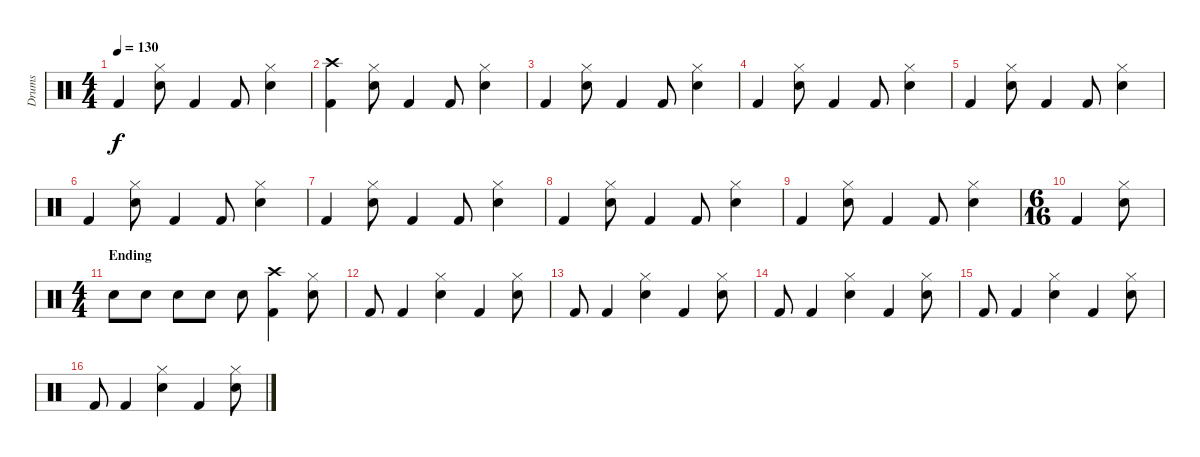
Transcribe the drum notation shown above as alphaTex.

\track ("Drums" "Drums") {instrument percussion}
\staff {score}
\articulation defaults
\ts (4 4)
\tempo 130
\clef neutral
\ks c "Kick (hit) 2".4{dy f}
("Hi-Hat (closed)" "Snare (hit) 2").8 "Kick (hit) 2".4 "Kick (hit) 2".8 ("Hi-Hat (closed)" "Snare (hit) 2").4 |
("Crash high (hit)" "Kick (hit) 2").4 ("Hi-Hat (closed)" "Snare (hit) 2").8 "Kick (hit) 2".4 "Kick (hit) 2".8 ("Hi-Hat (closed)" "Snare (hit) 2").4 |
"Kick (hit) 2".4 ("Hi-Hat (closed)" "Snare (hit) 2").8 "Kick (hit) 2".4 "Kick (hit) 2".8 ("Hi-Hat (closed)" "Snare (hit) 2").4 |
"Kick (hit) 2".4 ("Hi-Hat (closed)" "Snare (hit) 2").8 "Kick (hit) 2".4 "Kick (hit) 2".8 ("Hi-Hat (closed)" "Snare (hit) 2").4 |
"Kick (hit) 2".4 ("Hi-Hat (closed)" "Snare (hit) 2").8 "Kick (hit) 2".4 "Kick (hit) 2".8 ("Hi-Hat (closed)" "Snare (hit) 2").4 |
"Kick (hit) 2".4 ("Hi-Hat (closed)" "Snare (hit) 2").8 "Kick (hit) 2".4 "Kick (hit) 2".8 ("Hi-Hat (closed)" "Snare (hit) 2").4 |
"Kick (hit) 2".4 ("Hi-Hat (closed)" "Snare (hit) 2").8 "Kick (hit) 2".4 "Kick (hit) 2".8 ("Hi-Hat (closed)" "Snare (hit) 2").4 |
"Kick (hit) 2".4 ("Hi-Hat (closed)" "Snare (hit) 2").8 "Kick (hit) 2".4 "Kick (hit) 2".8 ("Hi-Hat (closed)" "Snare (hit) 2").4 |
"Kick (hit) 2".4 ("Hi-Hat (closed)" "Snare (hit) 2").8 "Kick (hit) 2".4 "Kick (hit) 2".8 ("Hi-Hat (closed)" "Snare (hit) 2").4 |
\ts (6 16)
"Kick (hit) 2".4 ("Hi-Hat (closed)" "Snare (hit) 2").8 |
\ts (4 4)
\section ("" "Ending")
"Snare (hit) 2".8 "Snare (hit) 2".8 "Snare (hit) 2".8 "Snare (hit) 2".8 "Snare (hit) 2".8 ("Crash high (hit)" "Kick (hit) 2").4 ("Snare (hit) 2" "Hi-Hat (closed)").8 |
"Kick (hit) 2".8 "Kick (hit) 2".4 ("Hi-Hat (closed)" "Snare (hit) 2").4 "Kick (hit) 2".4 ("Hi-Hat (closed)" "Snare (hit) 2").8 |
"Kick (hit) 2".8 "Kick (hit) 2".4 ("Hi-Hat (closed)" "Snare (hit) 2").4 "Kick (hit) 2".4 ("Hi-Hat (closed)" "Snare (hit) 2").8 |
"Kick (hit) 2".8 "Kick (hit) 2".4 ("Hi-Hat (closed)" "Snare (hit) 2").4 "Kick (hit) 2".4 ("Hi-Hat (closed)" "Snare (hit) 2").8 |
"Kick (hit) 2".8 "Kick (hit) 2".4 ("Hi-Hat (closed)" "Snare (hit) 2").4 "Kick (hit) 2".4 ("Hi-Hat (closed)" "Snare (hit) 2").8 |
"Kick (hit) 2".8 "Kick (hit) 2".4 ("Hi-Hat (closed)" "Snare (hit) 2").4 "Kick (hit) 2".4 ("Hi-Hat (closed)" "Snare (hit) 2").8
